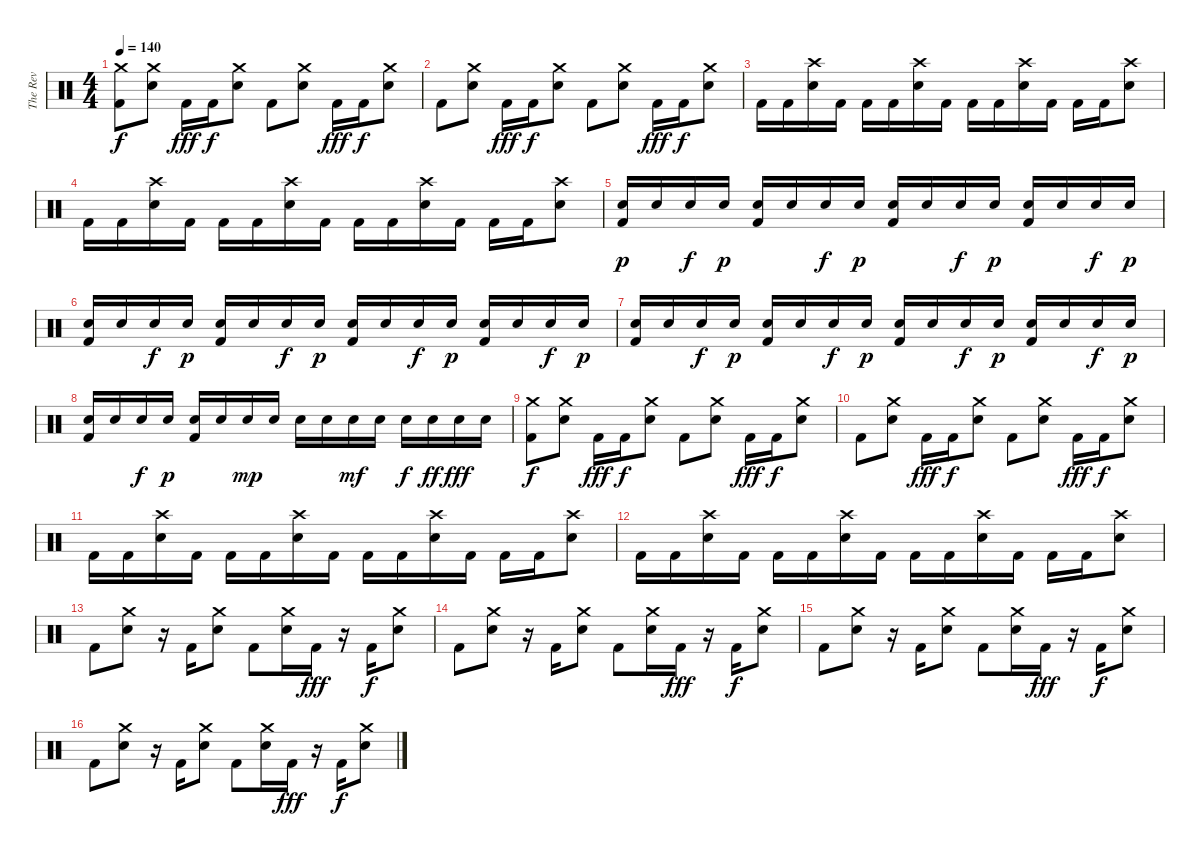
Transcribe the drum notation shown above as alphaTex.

\track ("The Rev" "The Rev") {instrument percussion}
\staff {score}
\articulation defaults
\ts (4 4)
\tempo 140
\clef neutral
\ks c
("Crash medium (hit)" "Kick (hit) 2").8{dy f} ("Crash medium (hit)" "Snare (hit) 2").8 "Kick (hit) 2".16{dy fff} "Kick (hit) 2".16{dy f} ("Crash medium (hit)" "Snare (hit) 2").8 "Kick (hit) 2".8 ("Crash medium (hit)" "Snare (hit) 2").8 "Kick (hit) 2".16{dy fff} "Kick (hit) 2".16{dy f} ("Crash medium (hit)" "Snare (hit) 2").8 |
"Kick (hit) 2".8 ("Crash medium (hit)" "Snare (hit) 2").8 "Kick (hit) 2".16{dy fff} "Kick (hit) 2".16{dy f} ("Crash medium (hit)" "Snare (hit) 2").8 "Kick (hit) 2".8 ("Crash medium (hit)" "Snare (hit) 2").8 "Kick (hit) 2".16{dy fff} "Kick (hit) 2".16{dy f} ("Crash medium (hit)" "Snare (hit) 2").8 |
"Kick (hit) 2".16 "Kick (hit) 2".16 ("Crash high (hit)" "Snare (hit) 2").16 "Kick (hit) 2".16 "Kick (hit) 2".16 "Kick (hit) 2".16 ("Crash high (hit)" "Snare (hit) 2").16 "Kick (hit) 2".16 "Kick (hit) 2".16 "Kick (hit) 2".16 ("Crash high (hit)" "Snare (hit) 2").16 "Kick (hit) 2".16 "Kick (hit) 2".16 "Kick (hit) 2".16 ("Crash high (hit)" "Snare (hit) 2").8 |
"Kick (hit) 2".16 "Kick (hit) 2".16 ("Crash high (hit)" "Snare (hit) 2").16 "Kick (hit) 2".16 "Kick (hit) 2".16 "Kick (hit) 2".16 ("Crash high (hit)" "Snare (hit) 2").16 "Kick (hit) 2".16 "Kick (hit) 2".16 "Kick (hit) 2".16 ("Crash high (hit)" "Snare (hit) 2").16 "Kick (hit) 2".16 "Kick (hit) 2".16 "Kick (hit) 2".16 ("Crash high (hit)" "Snare (hit) 2").8 |
("Snare (hit) 2" "Kick (hit) 2").16{dy p} "Snare (hit) 2".16 "Snare (hit) 2".16{dy f} "Snare (hit) 2".16{dy p} ("Snare (hit) 2" "Kick (hit) 2").16 "Snare (hit) 2".16 "Snare (hit) 2".16{dy f} "Snare (hit) 2".16{dy p} ("Snare (hit) 2" "Kick (hit) 2").16 "Snare (hit) 2".16 "Snare (hit) 2".16{dy f} "Snare (hit) 2".16{dy p} ("Snare (hit) 2" "Kick (hit) 2").16 "Snare (hit) 2".16 "Snare (hit) 2".16{dy f} "Snare (hit) 2".16{dy p} |
("Snare (hit) 2" "Kick (hit) 2").16 "Snare (hit) 2".16 "Snare (hit) 2".16{dy f} "Snare (hit) 2".16{dy p} ("Snare (hit) 2" "Kick (hit) 2").16 "Snare (hit) 2".16 "Snare (hit) 2".16{dy f} "Snare (hit) 2".16{dy p} ("Snare (hit) 2" "Kick (hit) 2").16 "Snare (hit) 2".16 "Snare (hit) 2".16{dy f} "Snare (hit) 2".16{dy p} ("Snare (hit) 2" "Kick (hit) 2").16 "Snare (hit) 2".16 "Snare (hit) 2".16{dy f} "Snare (hit) 2".16{dy p} |
("Snare (hit) 2" "Kick (hit) 2").16 "Snare (hit) 2".16 "Snare (hit) 2".16{dy f} "Snare (hit) 2".16{dy p} ("Snare (hit) 2" "Kick (hit) 2").16 "Snare (hit) 2".16 "Snare (hit) 2".16{dy f} "Snare (hit) 2".16{dy p} ("Snare (hit) 2" "Kick (hit) 2").16 "Snare (hit) 2".16 "Snare (hit) 2".16{dy f} "Snare (hit) 2".16{dy p} ("Snare (hit) 2" "Kick (hit) 2").16 "Snare (hit) 2".16 "Snare (hit) 2".16{dy f} "Snare (hit) 2".16{dy p} |
("Snare (hit) 2" "Kick (hit) 2").16 "Snare (hit) 2".16 "Snare (hit) 2".16{dy f} "Snare (hit) 2".16{dy p} ("Snare (hit) 2" "Kick (hit) 2").16 "Snare (hit) 2".16 "Snare (hit) 2".16{dy mp} "Snare (hit) 2".16 "Snare (hit) 2".16 "Snare (hit) 2".16 "Snare (hit) 2".16{dy mf} "Snare (hit) 2".16 "Snare (hit) 2".16{dy f} "Snare (hit) 2".16{dy ff} "Snare (hit) 2".16{dy fff} "Snare (hit) 2".16 |
("Crash medium (hit)" "Kick (hit) 2").8{dy f} ("Crash medium (hit)" "Snare (hit) 2").8 "Kick (hit) 2".16{dy fff} "Kick (hit) 2".16{dy f} ("Crash medium (hit)" "Snare (hit) 2").8 "Kick (hit) 2".8 ("Crash medium (hit)" "Snare (hit) 2").8 "Kick (hit) 2".16{dy fff} "Kick (hit) 2".16{dy f} ("Crash medium (hit)" "Snare (hit) 2").8 |
"Kick (hit) 2".8 ("Crash medium (hit)" "Snare (hit) 2").8 "Kick (hit) 2".16{dy fff} "Kick (hit) 2".16{dy f} ("Crash medium (hit)" "Snare (hit) 2").8 "Kick (hit) 2".8 ("Crash medium (hit)" "Snare (hit) 2").8 "Kick (hit) 2".16{dy fff} "Kick (hit) 2".16{dy f} ("Crash medium (hit)" "Snare (hit) 2").8 |
"Kick (hit) 2".16 "Kick (hit) 2".16 ("Crash high (hit)" "Snare (hit) 2").16 "Kick (hit) 2".16 "Kick (hit) 2".16 "Kick (hit) 2".16 ("Crash high (hit)" "Snare (hit) 2").16 "Kick (hit) 2".16 "Kick (hit) 2".16 "Kick (hit) 2".16 ("Crash high (hit)" "Snare (hit) 2").16 "Kick (hit) 2".16 "Kick (hit) 2".16 "Kick (hit) 2".16 ("Crash high (hit)" "Snare (hit) 2").8 |
"Kick (hit) 2".16 "Kick (hit) 2".16 ("Crash high (hit)" "Snare (hit) 2").16 "Kick (hit) 2".16 "Kick (hit) 2".16 "Kick (hit) 2".16 ("Crash high (hit)" "Snare (hit) 2").16 "Kick (hit) 2".16 "Kick (hit) 2".16 "Kick (hit) 2".16 ("Crash high (hit)" "Snare (hit) 2").16 "Kick (hit) 2".16 "Kick (hit) 2".16 "Kick (hit) 2".16 ("Crash high (hit)" "Snare (hit) 2").8 |
"Kick (hit) 2".8 ("Crash medium (hit)" "Snare (hit) 2").8 r.16 "Kick (hit) 2".16 ("Crash medium (hit)" "Snare (hit) 2").8 "Kick (hit) 2".8 ("Crash medium (hit)" "Snare (hit) 2").16 "Kick (hit) 2".16{dy fff} r.16 "Kick (hit) 2".16{dy f} ("Crash medium (hit)" "Snare (hit) 2").8 |
"Kick (hit) 2".8 ("Crash medium (hit)" "Snare (hit) 2").8 r.16 "Kick (hit) 2".16 ("Crash medium (hit)" "Snare (hit) 2").8 "Kick (hit) 2".8 ("Crash medium (hit)" "Snare (hit) 2").16 "Kick (hit) 2".16{dy fff} r.16 "Kick (hit) 2".16{dy f} ("Crash medium (hit)" "Snare (hit) 2").8 |
"Kick (hit) 2".8 ("Crash medium (hit)" "Snare (hit) 2").8 r.16 "Kick (hit) 2".16 ("Crash medium (hit)" "Snare (hit) 2").8 "Kick (hit) 2".8 ("Crash medium (hit)" "Snare (hit) 2").16 "Kick (hit) 2".16{dy fff} r.16 "Kick (hit) 2".16{dy f} ("Crash medium (hit)" "Snare (hit) 2").8 |
"Kick (hit) 2".8 ("Crash medium (hit)" "Snare (hit) 2").8 r.16 "Kick (hit) 2".16 ("Crash medium (hit)" "Snare (hit) 2").8 "Kick (hit) 2".8 ("Crash medium (hit)" "Snare (hit) 2").16 "Kick (hit) 2".16{dy fff} r.16 "Kick (hit) 2".16{dy f} ("Crash medium (hit)" "Snare (hit) 2").8
